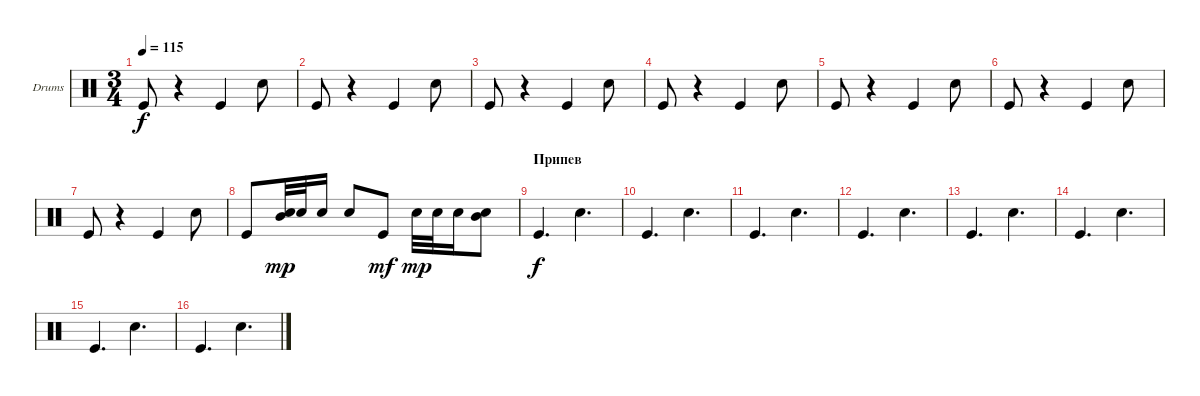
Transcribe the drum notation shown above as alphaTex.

\defaultSystemsLayout 4
\bracketExtendMode groupsimilarinstruments
\firstSystemTrackNameOrientation horizontal
\otherSystemsTrackNameOrientation horizontal
\track ("Е. Кулаков" "Drums") {instrument percussion}
\staff {score}
\articulation defaults
\ts (3 4)
\tempo 115
\clef neutral
\ks c "Kick (hit)".8{dy f}
r.4 "Kick (hit)".4 "Snare (hit) 2".8 |
"Kick (hit)".8 r.4 "Kick (hit)".4 "Snare (hit) 2".8 |
"Kick (hit)".8 r.4 "Kick (hit)".4 "Snare (hit) 2".8 |
"Kick (hit)".8 r.4 "Kick (hit)".4 "Snare (hit) 2".8 |
"Kick (hit)".8 r.4 "Kick (hit)".4 "Snare (hit) 2".8 |
"Kick (hit)".8 r.4 "Kick (hit)".4 "Snare (hit) 2".8 |
"Kick (hit)".8 r.4 "Kick (hit)".4 "Snare (hit) 2".8 |
"Kick (hit)".8 ("Snare (hit) 2" "Mid Tom (hit)").32{dy mp} "Snare (hit) 2".32 "Snare (hit) 2".16 "Snare (hit) 2".8 "Kick (hit)".8{dy mf} "Snare (hit) 2".32{dy mp} "Snare (hit) 2".32 "Snare (hit) 2".16 ("Snare (hit) 2" "Mid Tom (hit)").8 |
\section ("" "Припев")
"Kick (hit)".4{d dy f} "Snare (hit) 2".4{d} |
"Kick (hit)".4{d} "Snare (hit) 2".4{d} |
"Kick (hit)".4{d} "Snare (hit) 2".4{d} |
"Kick (hit)".4{d} "Snare (hit) 2".4{d} |
"Kick (hit)".4{d} "Snare (hit) 2".4{d} |
"Kick (hit)".4{d} "Snare (hit) 2".4{d} |
"Kick (hit)".4{d} "Snare (hit) 2".4{d} |
"Kick (hit)".4{d} "Snare (hit) 2".4{d}
